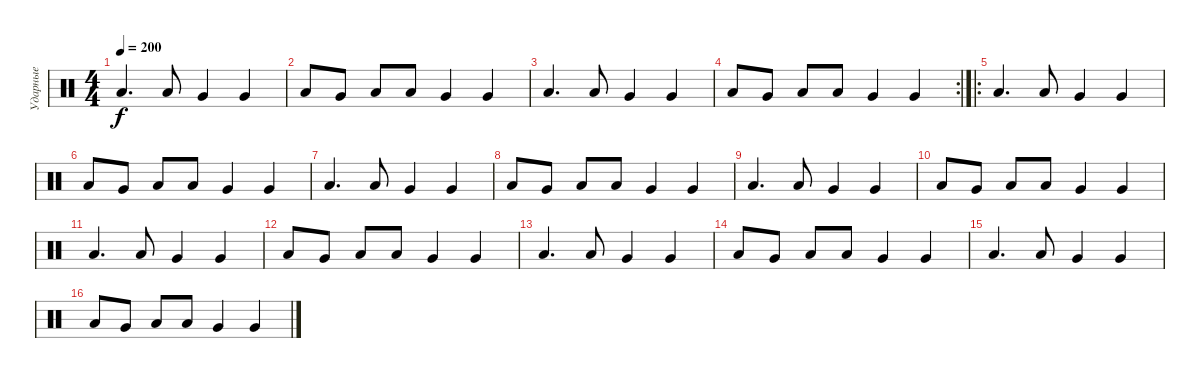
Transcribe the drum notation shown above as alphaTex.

\track ("Ударные" "Ударные") {instrument percussion}
\staff {score}
\articulation defaults
\ts (4 4)
\tempo 200
\clef neutral
\ks c "Low Floor Tom (hit)".4{d dy f} "Low Floor Tom (hit)".8 "Very Low Tom (hit)".4 "Very Low Tom (hit)".4
|
"Low Floor Tom (hit)".8 "Very Low Tom (hit)".8 "Low Floor Tom (hit)".8 "Low Floor Tom (hit)".8 "Very Low Tom (hit)".4 "Very Low Tom (hit)".4 |
"Low Floor Tom (hit)".4{d} "Low Floor Tom (hit)".8 "Very Low Tom (hit)".4 "Very Low Tom (hit)".4 |
\rc 2 "Low Floor Tom (hit)".8 "Very Low Tom (hit)".8 "Low Floor Tom (hit)".8 "Low Floor Tom (hit)".8 "Very Low Tom (hit)".4 "Very Low Tom (hit)".4
|
\ro "Low Floor Tom (hit)".4{d} "Low Floor Tom (hit)".8 "Very Low Tom (hit)".4 "Very Low Tom (hit)".4
|
"Low Floor Tom (hit)".8 "Very Low Tom (hit)".8 "Low Floor Tom (hit)".8 "Low Floor Tom (hit)".8 "Very Low Tom (hit)".4 "Very Low Tom (hit)".4 |
"Low Floor Tom (hit)".4{d} "Low Floor Tom (hit)".8 "Very Low Tom (hit)".4 "Very Low Tom (hit)".4 |
"Low Floor Tom (hit)".8 "Very Low Tom (hit)".8 "Low Floor Tom (hit)".8 "Low Floor Tom (hit)".8 "Very Low Tom (hit)".4 "Very Low Tom (hit)".4 |
"Low Floor Tom (hit)".4{d} "Low Floor Tom (hit)".8 "Very Low Tom (hit)".4 "Very Low Tom (hit)".4 |
"Low Floor Tom (hit)".8 "Very Low Tom (hit)".8 "Low Floor Tom (hit)".8 "Low Floor Tom (hit)".8 "Very Low Tom (hit)".4 "Very Low Tom (hit)".4 |
"Low Floor Tom (hit)".4{d} "Low Floor Tom (hit)".8 "Very Low Tom (hit)".4 "Very Low Tom (hit)".4 |
"Low Floor Tom (hit)".8 "Very Low Tom (hit)".8 "Low Floor Tom (hit)".8 "Low Floor Tom (hit)".8 "Very Low Tom (hit)".4 "Very Low Tom (hit)".4 |
"Low Floor Tom (hit)".4{d} "Low Floor Tom (hit)".8 "Very Low Tom (hit)".4 "Very Low Tom (hit)".4 |
"Low Floor Tom (hit)".8 "Very Low Tom (hit)".8 "Low Floor Tom (hit)".8 "Low Floor Tom (hit)".8 "Very Low Tom (hit)".4 "Very Low Tom (hit)".4 |
"Low Floor Tom (hit)".4{d} "Low Floor Tom (hit)".8 "Very Low Tom (hit)".4 "Very Low Tom (hit)".4 |
"Low Floor Tom (hit)".8 "Very Low Tom (hit)".8 "Low Floor Tom (hit)".8 "Low Floor Tom (hit)".8 "Very Low Tom (hit)".4 "Very Low Tom (hit)".4
